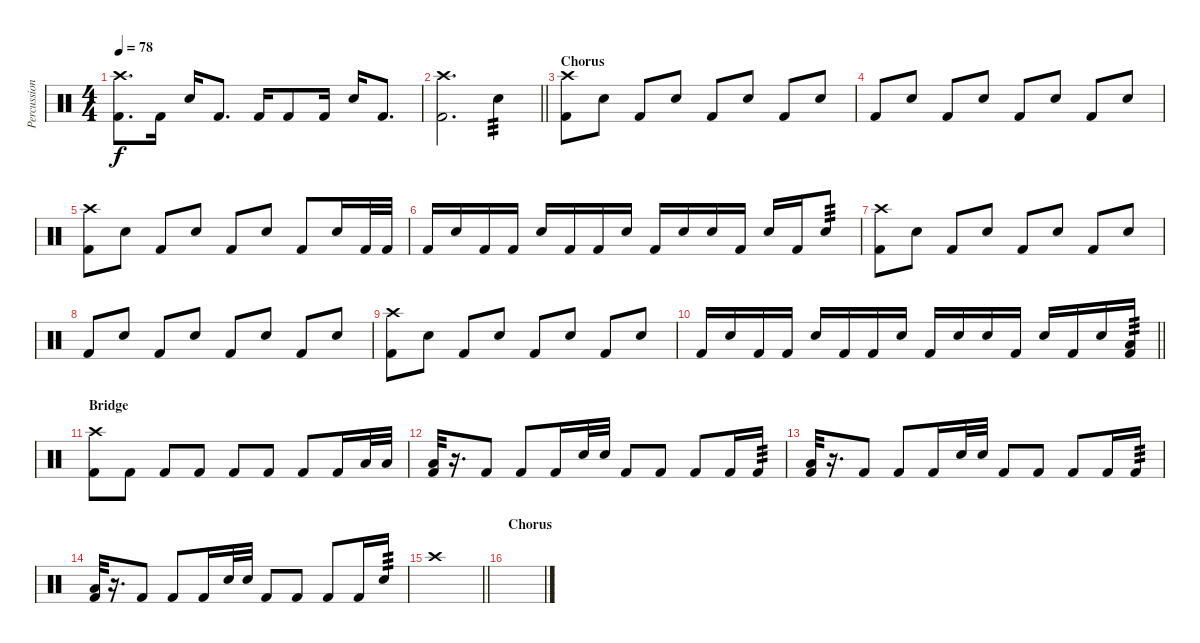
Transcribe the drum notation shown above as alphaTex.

\track ("Percussion" "Percussion") {instrument percussion}
\staff {score}
\articulation defaults
\ts (4 4)
\tempo 78
\clef neutral
\ks c
("Kick (hit) 2" "Crash high (hit)").8{d dy f} "Kick (hit) 2".16 "Snare (hit) 2".16 "Kick (hit) 2".8{d} "Kick (hit) 2".16 "Kick (hit) 2".8 "Kick (hit) 2".16 "Snare (hit) 2".16 "Kick (hit) 2".8{d} |
\barLineRight lightlight
("Kick (hit) 2" "Crash high (hit)").2{d} "Snare (hit) 2".4{tp 3} |
\section ("" "Chorus")
("Kick (hit) 2" "Crash high (hit)").8 "Snare (hit) 2".8 "Kick (hit) 2".8 "Snare (hit) 2".8 "Kick (hit) 2".8 "Snare (hit) 2".8 "Kick (hit) 2".8 "Snare (hit) 2".8 |
"Kick (hit) 2".8 "Snare (hit) 2".8 "Kick (hit) 2".8 "Snare (hit) 2".8 "Kick (hit) 2".8 "Snare (hit) 2".8 "Kick (hit) 2".8 "Snare (hit) 2".8 |
("Kick (hit) 2" "Crash high (hit)").8 "Snare (hit) 2".8 "Kick (hit) 2".8 "Snare (hit) 2".8 "Kick (hit) 2".8 "Snare (hit) 2".8 "Kick (hit) 2".8 "Snare (hit) 2".16 "Kick (hit) 2".32 "Kick (hit) 2".32 |
"Kick (hit) 2".16 "Electric Snare (hit)".16 "Kick (hit) 2".16 "Kick (hit) 2".16 "Electric Snare (hit)".16 "Kick (hit) 2".16 "Kick (hit) 2".16 "Electric Snare (hit)".16 "Kick (hit) 2".16 "Electric Snare (hit)".16 "Electric Snare (hit)".16 "Kick (hit) 2".16 "Electric Snare (hit)".16 "Kick (hit) 2".16 "Electric Snare (hit)".8{tp 3} |
("Kick (hit) 2" "Crash high (hit)").8 "Snare (hit) 2".8 "Kick (hit) 2".8 "Snare (hit) 2".8 "Kick (hit) 2".8 "Snare (hit) 2".8 "Kick (hit) 2".8 "Snare (hit) 2".8 |
"Kick (hit) 2".8 "Snare (hit) 2".8 "Kick (hit) 2".8 "Snare (hit) 2".8 "Kick (hit) 2".8 "Snare (hit) 2".8 "Kick (hit) 2".8 "Snare (hit) 2".8 |
("Kick (hit) 2" "Crash high (hit)").8 "Snare (hit) 2".8 "Kick (hit) 2".8 "Snare (hit) 2".8 "Kick (hit) 2".8 "Snare (hit) 2".8 "Kick (hit) 2".8 "Snare (hit) 2".8 |
\barLineRight lightlight "Kick (hit) 2".16 "Electric Snare (hit)".16 "Kick (hit) 2".16 "Kick (hit) 2".16 "Electric Snare (hit)".16 "Kick (hit) 2".16 "Kick (hit) 2".16 "Electric Snare (hit)".16 "Kick (hit) 2".16 "Electric Snare (hit)".16 "Electric Snare (hit)".16 "Kick (hit) 2".16 "Electric Snare (hit)".16 "Kick (hit) 2".16 "Electric Snare (hit)".16
("Kick (hit) 2" "Low Floor Tom (hit)").16{tp 3} |
\section ("" "Bridge")
("Kick (hit) 2" "Crash high (hit)").8 "Kick (hit) 2".8 "Kick (hit) 2".8 "Kick (hit) 2".8 "Kick (hit) 2".8 "Kick (hit) 2".8 "Kick (hit) 2".8 "Kick (hit) 2".16 "Low Tom (hit)".32 "Low Tom (hit)".32 |
("Kick (hit) 2" "Low Tom (hit)").32 r.16{d} "Kick (hit) 2".8 "Kick (hit) 2".8 "Kick (hit) 2".16 "Snare (hit) 2".32 "Snare (hit) 2".32 "Kick (hit) 2".8 "Kick (hit) 2".8 "Kick (hit) 2".8 "Kick (hit) 2".16 "Kick (hit) 2".16{tp 3} |
("Kick (hit) 2" "Low Tom (hit)").32 r.16{d} "Kick (hit) 2".8 "Kick (hit) 2".8 "Kick (hit) 2".16 "Electric Snare (hit)".32 "Electric Snare (hit)".32 "Kick (hit) 2".8 "Kick (hit) 2".8 "Kick (hit) 2".8 "Kick (hit) 2".16 "Kick (hit) 2".16{tp 3} |
("Kick (hit) 2" "Low Tom (hit)").32 r.16{d} "Kick (hit) 2".8 "Kick (hit) 2".8 "Kick (hit) 2".16 "Electric Snare (hit)".32 "Electric Snare (hit)".32 "Kick (hit) 2".8 "Kick (hit) 2".8 "Kick (hit) 2".8 "Kick (hit) 2".16 "Snare (hit) 2".16{tp 3} |
\barLineRight lightlight "Crash high (hit)".1
|
\section ("" "Chorus")
